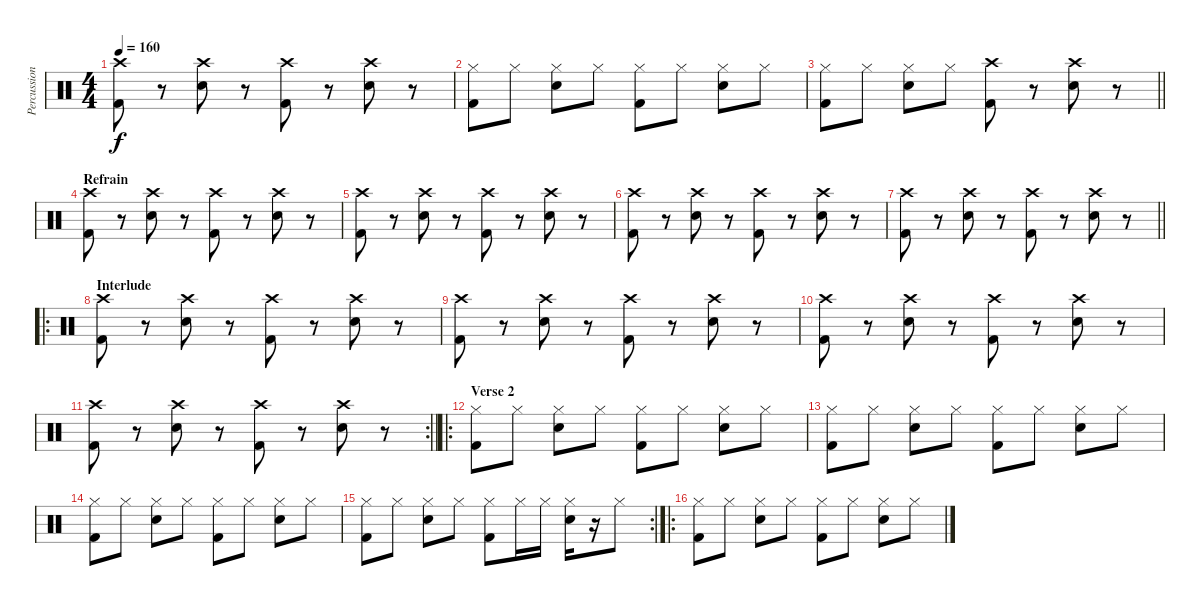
\track ("Percussions" "Percussion") {instrument percussion}
\staff {score}
\articulation defaults
\ts (4 4)
\tempo 160
\clef neutral
\ks c
("Crash high (hit)" "Kick (hit) 2").8{dy f} r.8 ("Crash high (hit)" "Electric Snare (hit)").8 r.8 ("Crash high (hit)" "Kick (hit) 2").8 r.8 ("Crash high (hit)" "Electric Snare (hit)").8 r.8 |
("Hi-Hat (closed)" "Kick (hit) 2").8 "Hi-Hat (closed)".8 ("Hi-Hat (closed)" "Electric Snare (hit)").8 "Hi-Hat (closed)".8 ("Hi-Hat (closed)" "Kick (hit) 2").8 "Hi-Hat (closed)".8 ("Hi-Hat (closed)" "Electric Snare (hit)").8 "Hi-Hat (closed)".8 |
\barLineRight lightlight
("Hi-Hat (closed)" "Kick (hit) 2").8 "Hi-Hat (closed)".8 ("Hi-Hat (closed)" "Electric Snare (hit)").8 "Hi-Hat (closed)".8 ("Crash high (hit)" "Kick (hit) 2").8 r.8 ("Crash high (hit)" "Electric Snare (hit)").8 r.8 |
\section ("" "Refrain")
("Crash high (hit)" "Kick (hit) 2").8 r.8 ("Crash high (hit)" "Electric Snare (hit)").8 r.8 ("Crash high (hit)" "Kick (hit) 2").8 r.8 ("Crash high (hit)" "Electric Snare (hit)").8 r.8 |
("Crash high (hit)" "Kick (hit) 2").8 r.8 ("Crash high (hit)" "Electric Snare (hit)").8 r.8 ("Crash high (hit)" "Kick (hit) 2").8 r.8 ("Crash high (hit)" "Electric Snare (hit)").8 r.8 |
("Crash high (hit)" "Kick (hit) 2").8 r.8 ("Crash high (hit)" "Electric Snare (hit)").8 r.8 ("Crash high (hit)" "Kick (hit) 2").8 r.8 ("Crash high (hit)" "Electric Snare (hit)").8 r.8 |
\barLineRight lightlight
("Crash high (hit)" "Kick (hit) 2").8 r.8 ("Crash high (hit)" "Electric Snare (hit)").8 r.8 ("Crash high (hit)" "Kick (hit) 2").8 r.8 ("Crash high (hit)" "Electric Snare (hit)").8 r.8 |
\ro
\section ("" "Interlude")
("Crash high (hit)" "Kick (hit) 2").8 r.8 ("Crash high (hit)" "Electric Snare (hit)").8 r.8 ("Crash high (hit)" "Kick (hit) 2").8 r.8 ("Crash high (hit)" "Electric Snare (hit)").8 r.8 |
("Crash high (hit)" "Kick (hit) 2").8 r.8 ("Crash high (hit)" "Electric Snare (hit)").8 r.8 ("Crash high (hit)" "Kick (hit) 2").8 r.8 ("Crash high (hit)" "Electric Snare (hit)").8 r.8 |
("Crash high (hit)" "Kick (hit) 2").8 r.8 ("Crash high (hit)" "Electric Snare (hit)").8 r.8 ("Crash high (hit)" "Kick (hit) 2").8 r.8 ("Crash high (hit)" "Electric Snare (hit)").8 r.8 |
\rc 2
\barLineRight lightlight
("Crash high (hit)" "Kick (hit) 2").8 r.8 ("Crash high (hit)" "Electric Snare (hit)").8 r.8 ("Crash high (hit)" "Kick (hit) 2").8 r.8 ("Crash high (hit)" "Electric Snare (hit)").8 r.8 |
\ro
\section ("" "Verse 2")
("Hi-Hat (closed)" "Kick (hit) 2").8 "Hi-Hat (closed)".8 ("Hi-Hat (closed)" "Electric Snare (hit)").8 "Hi-Hat (closed)".8 ("Hi-Hat (closed)" "Kick (hit) 2").8 "Hi-Hat (closed)".8 ("Hi-Hat (closed)" "Electric Snare (hit)").8 "Hi-Hat (closed)".8 |
("Hi-Hat (closed)" "Kick (hit) 2").8 "Hi-Hat (closed)".8 ("Hi-Hat (closed)" "Electric Snare (hit)").8 "Hi-Hat (closed)".8 ("Hi-Hat (closed)" "Kick (hit) 2").8 "Hi-Hat (closed)".8 ("Hi-Hat (closed)" "Electric Snare (hit)").8 "Hi-Hat (closed)".8 |
("Hi-Hat (closed)" "Kick (hit) 2").8 "Hi-Hat (closed)".8 ("Hi-Hat (closed)" "Electric Snare (hit)").8 "Hi-Hat (closed)".8 ("Hi-Hat (closed)" "Kick (hit) 2").8 "Hi-Hat (closed)".8 ("Hi-Hat (closed)" "Electric Snare (hit)").8 "Hi-Hat (closed)".8 |
\rc 2
("Hi-Hat (closed)" "Kick (hit) 2").8 "Hi-Hat (closed)".8 ("Hi-Hat (closed)" "Electric Snare (hit)").8 "Hi-Hat (closed)".8 ("Hi-Hat (closed)" "Kick (hit) 2").8 "Hi-Hat (closed)".16 "Hi-Hat (closed)".16 ("Hi-Hat (closed)" "Electric Snare (hit)").16 r.16 "Hi-Hat (closed)".8 |
\ro
("Hi-Hat (closed)" "Kick (hit) 2").8 "Hi-Hat (closed)".8 ("Hi-Hat (closed)" "Electric Snare (hit)").8 "Hi-Hat (closed)".8 ("Hi-Hat (closed)" "Kick (hit) 2").8 "Hi-Hat (closed)".8 ("Hi-Hat (closed)" "Electric Snare (hit)").8 "Hi-Hat (closed)".8
